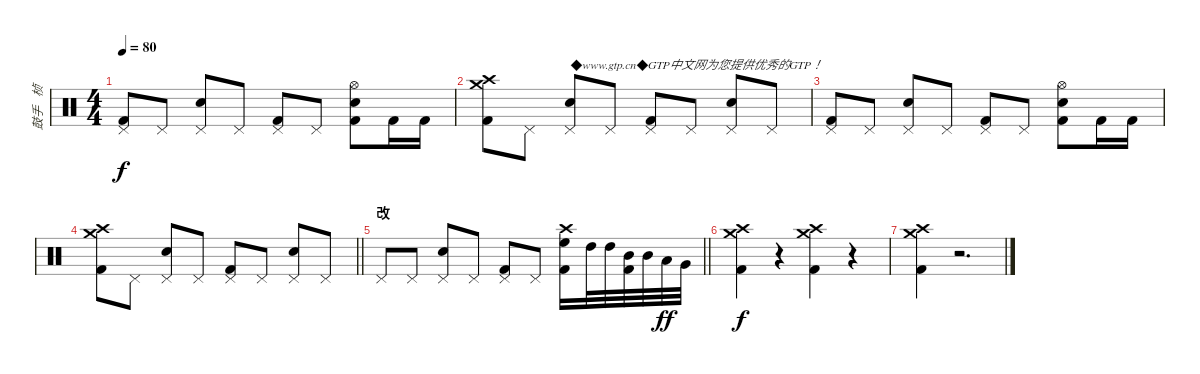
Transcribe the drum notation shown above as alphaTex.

\track ("鼓手   桢" "鼓手   桢") {instrument percussion}
\staff {score}
\articulation defaults
\ts (4 4)
\tempo 80
\clef neutral
\ks c
("Pedal Hi-Hat (hit)" "Kick (hit) 2").8{dy f} "Pedal Hi-Hat (hit)".8 ("Pedal Hi-Hat (hit)" "Snare (hit) 2").8 "Pedal Hi-Hat (hit)".8 ("Pedal Hi-Hat (hit)" "Kick (hit) 2").8 "Pedal Hi-Hat (hit)".8 ("Hi-Hat (open)" "Snare (hit) 2" "Kick (hit) 2").8 "Kick (hit) 2".16 "Kick (hit) 2".16 |
("Crash high (hit)" "Crash medium (hit)" "Kick (hit) 2").8 "Pedal Hi-Hat (hit)".8 ("Pedal Hi-Hat (hit)" "Snare (hit) 2").8{txt "◆www.gtp.cn◆GTP中文网为您提供优秀的GTP！"} "Pedal Hi-Hat (hit)".8 ("Pedal Hi-Hat (hit)" "Kick (hit) 2").8 "Pedal Hi-Hat (hit)".8 ("Pedal Hi-Hat (hit)" "Snare (hit) 2").8 "Pedal Hi-Hat (hit)".8 |
("Pedal Hi-Hat (hit)" "Kick (hit) 2").8 "Pedal Hi-Hat (hit)".8 ("Pedal Hi-Hat (hit)" "Snare (hit) 2").8 "Pedal Hi-Hat (hit)".8 ("Pedal Hi-Hat (hit)" "Kick (hit) 2").8 "Pedal Hi-Hat (hit)".8 ("Hi-Hat (open)" "Snare (hit) 2" "Kick (hit) 2").8 "Kick (hit) 2".16 "Kick (hit) 2".16 |
\barLineRight lightlight
("Crash high (hit)" "Crash medium (hit)" "Kick (hit) 2").8 "Pedal Hi-Hat (hit)".8 ("Pedal Hi-Hat (hit)" "Snare (hit) 2").8 "Pedal Hi-Hat (hit)".8 ("Pedal Hi-Hat (hit)" "Kick (hit) 2").8 "Pedal Hi-Hat (hit)".8 ("Pedal Hi-Hat (hit)" "Snare (hit) 2").8 "Pedal Hi-Hat (hit)".8 |
\section ("" "改")
\barLineRight lightlight "Pedal Hi-Hat (hit)".8 "Pedal Hi-Hat (hit)".8
("Pedal Hi-Hat (hit)" "Snare (hit) 2").8 "Pedal Hi-Hat (hit)".8 ("Pedal Hi-Hat (hit)" "Kick (hit) 2").8 "Pedal Hi-Hat (hit)".8 ("Crash high (hit)" "High Floor Tom (hit)" "Kick (hit) 2").16 "High Tom (hit)".32 "High Tom (hit)".32 ("Mid Tom (hit)" "Kick (hit) 2").32 "Mid Tom (hit)".32 "Low Tom (hit)".32{dy ff} "Very Low Tom (hit)".32 |
("Crash high (hit)" "Crash medium (hit)" "Kick (hit) 2").4{dy f} r.4 ("Crash high (hit)" "Crash medium (hit)" "Kick (hit) 2").4 r.4 |
("Crash high (hit)" "Crash medium (hit)" "Kick (hit) 2").4 r.2{d}
